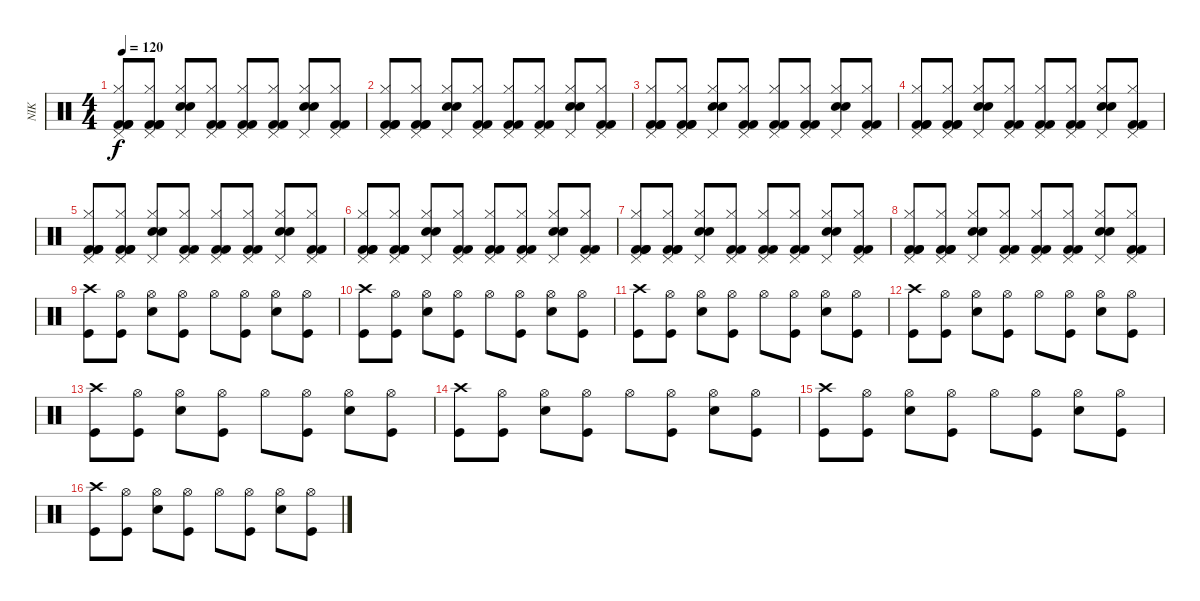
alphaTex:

\track ("NIK" "NIK") {instrument percussion}
\staff {score}
\articulation defaults
\ts (4 4)
\tempo 120
\clef neutral
\ks c
("Pedal Hi-Hat (hit)" "Hi-Hat (closed)" "Kick (hit) 2" "Kick (hit) 2" "Kick (hit) 2").8{dy f} ("Pedal Hi-Hat (hit)" "Hi-Hat (closed)" "Kick (hit) 2" "Kick (hit) 2" "Kick (hit) 2").8 ("Pedal Hi-Hat (hit)" "Hi-Hat (closed)" "Snare (hit) 2" "Snare (hit) 2").8 ("Pedal Hi-Hat (hit)" "Hi-Hat (closed)" "Kick (hit) 2" "Kick (hit) 2").8 ("Pedal Hi-Hat (hit)" "Hi-Hat (closed)" "Kick (hit) 2" "Kick (hit) 2").8 ("Pedal Hi-Hat (hit)" "Hi-Hat (closed)" "Kick (hit) 2" "Kick (hit) 2").8 ("Pedal Hi-Hat (hit)" "Hi-Hat (closed)" "Snare (hit) 2" "Snare (hit) 2").8 ("Pedal Hi-Hat (hit)" "Hi-Hat (closed)" "Kick (hit) 2" "Kick (hit) 2").8 |
("Pedal Hi-Hat (hit)" "Hi-Hat (closed)" "Kick (hit) 2" "Kick (hit) 2" "Kick (hit) 2").8 ("Pedal Hi-Hat (hit)" "Hi-Hat (closed)" "Kick (hit) 2" "Kick (hit) 2" "Kick (hit) 2").8 ("Pedal Hi-Hat (hit)" "Hi-Hat (closed)" "Snare (hit) 2" "Snare (hit) 2").8 ("Pedal Hi-Hat (hit)" "Hi-Hat (closed)" "Kick (hit) 2" "Kick (hit) 2").8 ("Pedal Hi-Hat (hit)" "Hi-Hat (closed)" "Kick (hit) 2" "Kick (hit) 2").8 ("Pedal Hi-Hat (hit)" "Hi-Hat (closed)" "Kick (hit) 2" "Kick (hit) 2").8 ("Pedal Hi-Hat (hit)" "Hi-Hat (closed)" "Snare (hit) 2" "Snare (hit) 2").8 ("Pedal Hi-Hat (hit)" "Hi-Hat (closed)" "Kick (hit) 2" "Kick (hit) 2").8 |
("Pedal Hi-Hat (hit)" "Hi-Hat (closed)" "Kick (hit) 2" "Kick (hit) 2" "Kick (hit) 2").8 ("Pedal Hi-Hat (hit)" "Hi-Hat (closed)" "Kick (hit) 2" "Kick (hit) 2" "Kick (hit) 2").8 ("Pedal Hi-Hat (hit)" "Hi-Hat (closed)" "Snare (hit) 2" "Snare (hit) 2").8 ("Pedal Hi-Hat (hit)" "Hi-Hat (closed)" "Kick (hit) 2" "Kick (hit) 2").8 ("Pedal Hi-Hat (hit)" "Hi-Hat (closed)" "Kick (hit) 2" "Kick (hit) 2").8 ("Pedal Hi-Hat (hit)" "Hi-Hat (closed)" "Kick (hit) 2" "Kick (hit) 2").8 ("Pedal Hi-Hat (hit)" "Hi-Hat (closed)" "Snare (hit) 2" "Snare (hit) 2").8 ("Pedal Hi-Hat (hit)" "Hi-Hat (closed)" "Kick (hit) 2" "Kick (hit) 2").8 |
("Pedal Hi-Hat (hit)" "Hi-Hat (closed)" "Kick (hit) 2" "Kick (hit) 2" "Kick (hit) 2").8 ("Pedal Hi-Hat (hit)" "Hi-Hat (closed)" "Kick (hit) 2" "Kick (hit) 2" "Kick (hit) 2").8 ("Pedal Hi-Hat (hit)" "Hi-Hat (closed)" "Snare (hit) 2" "Snare (hit) 2").8 ("Pedal Hi-Hat (hit)" "Hi-Hat (closed)" "Kick (hit) 2" "Kick (hit) 2").8 ("Pedal Hi-Hat (hit)" "Hi-Hat (closed)" "Kick (hit) 2" "Kick (hit) 2").8 ("Pedal Hi-Hat (hit)" "Hi-Hat (closed)" "Kick (hit) 2" "Kick (hit) 2").8 ("Pedal Hi-Hat (hit)" "Hi-Hat (closed)" "Snare (hit) 2" "Snare (hit) 2").8 ("Pedal Hi-Hat (hit)" "Hi-Hat (closed)" "Kick (hit) 2" "Kick (hit) 2").8 |
("Pedal Hi-Hat (hit)" "Hi-Hat (closed)" "Kick (hit) 2" "Kick (hit) 2" "Kick (hit) 2").8 ("Pedal Hi-Hat (hit)" "Hi-Hat (closed)" "Kick (hit) 2" "Kick (hit) 2" "Kick (hit) 2").8 ("Pedal Hi-Hat (hit)" "Hi-Hat (closed)" "Snare (hit) 2" "Snare (hit) 2").8 ("Pedal Hi-Hat (hit)" "Hi-Hat (closed)" "Kick (hit) 2" "Kick (hit) 2").8 ("Pedal Hi-Hat (hit)" "Hi-Hat (closed)" "Kick (hit) 2" "Kick (hit) 2").8 ("Pedal Hi-Hat (hit)" "Hi-Hat (closed)" "Kick (hit) 2" "Kick (hit) 2").8 ("Pedal Hi-Hat (hit)" "Hi-Hat (closed)" "Snare (hit) 2" "Snare (hit) 2").8 ("Pedal Hi-Hat (hit)" "Hi-Hat (closed)" "Kick (hit) 2" "Kick (hit) 2").8 |
("Pedal Hi-Hat (hit)" "Hi-Hat (closed)" "Kick (hit) 2" "Kick (hit) 2" "Kick (hit) 2").8 ("Pedal Hi-Hat (hit)" "Hi-Hat (closed)" "Kick (hit) 2" "Kick (hit) 2" "Kick (hit) 2").8 ("Pedal Hi-Hat (hit)" "Hi-Hat (closed)" "Snare (hit) 2" "Snare (hit) 2").8 ("Pedal Hi-Hat (hit)" "Hi-Hat (closed)" "Kick (hit) 2" "Kick (hit) 2").8 ("Pedal Hi-Hat (hit)" "Hi-Hat (closed)" "Kick (hit) 2" "Kick (hit) 2").8 ("Pedal Hi-Hat (hit)" "Hi-Hat (closed)" "Kick (hit) 2" "Kick (hit) 2").8 ("Pedal Hi-Hat (hit)" "Hi-Hat (closed)" "Snare (hit) 2" "Snare (hit) 2").8 ("Pedal Hi-Hat (hit)" "Hi-Hat (closed)" "Kick (hit) 2" "Kick (hit) 2").8 |
("Pedal Hi-Hat (hit)" "Hi-Hat (closed)" "Kick (hit) 2" "Kick (hit) 2" "Kick (hit) 2").8 ("Pedal Hi-Hat (hit)" "Hi-Hat (closed)" "Kick (hit) 2" "Kick (hit) 2" "Kick (hit) 2").8 ("Pedal Hi-Hat (hit)" "Hi-Hat (closed)" "Snare (hit) 2" "Snare (hit) 2").8 ("Pedal Hi-Hat (hit)" "Hi-Hat (closed)" "Kick (hit) 2" "Kick (hit) 2").8 ("Pedal Hi-Hat (hit)" "Hi-Hat (closed)" "Kick (hit) 2" "Kick (hit) 2").8 ("Pedal Hi-Hat (hit)" "Hi-Hat (closed)" "Kick (hit) 2" "Kick (hit) 2").8 ("Pedal Hi-Hat (hit)" "Hi-Hat (closed)" "Snare (hit) 2" "Snare (hit) 2").8 ("Pedal Hi-Hat (hit)" "Hi-Hat (closed)" "Kick (hit) 2" "Kick (hit) 2").8 |
("Pedal Hi-Hat (hit)" "Hi-Hat (closed)" "Kick (hit) 2" "Kick (hit) 2" "Kick (hit) 2").8 ("Pedal Hi-Hat (hit)" "Hi-Hat (closed)" "Kick (hit) 2" "Kick (hit) 2" "Kick (hit) 2").8 ("Pedal Hi-Hat (hit)" "Hi-Hat (closed)" "Snare (hit) 2" "Snare (hit) 2").8 ("Pedal Hi-Hat (hit)" "Hi-Hat (closed)" "Kick (hit) 2" "Kick (hit) 2").8 ("Pedal Hi-Hat (hit)" "Hi-Hat (closed)" "Kick (hit) 2" "Kick (hit) 2").8 ("Pedal Hi-Hat (hit)" "Hi-Hat (closed)" "Kick (hit) 2" "Kick (hit) 2").8 ("Pedal Hi-Hat (hit)" "Hi-Hat (closed)" "Snare (hit) 2" "Snare (hit) 2").8 ("Pedal Hi-Hat (hit)" "Hi-Hat (closed)" "Kick (hit) 2" "Kick (hit) 2").8 |
("Crash high (hit)" "Kick (hit)").8 ("Hi-Hat (open)" "Kick (hit)").8 ("Hi-Hat (open)" "Electric Snare (hit)").8 ("Hi-Hat (open)" "Kick (hit)").8 "Hi-Hat (open)".8 ("Hi-Hat (open)" "Kick (hit)").8 ("Hi-Hat (open)" "Electric Snare (hit)").8 ("Hi-Hat (open)" "Kick (hit)").8 |
("Crash high (hit)" "Kick (hit)").8 ("Hi-Hat (open)" "Kick (hit)").8 ("Hi-Hat (open)" "Electric Snare (hit)").8 ("Hi-Hat (open)" "Kick (hit)").8 "Hi-Hat (open)".8 ("Hi-Hat (open)" "Kick (hit)").8 ("Hi-Hat (open)" "Electric Snare (hit)").8 ("Hi-Hat (open)" "Kick (hit)").8 |
("Crash high (hit)" "Kick (hit)").8 ("Hi-Hat (open)" "Kick (hit)").8 ("Hi-Hat (open)" "Electric Snare (hit)").8 ("Hi-Hat (open)" "Kick (hit)").8 "Hi-Hat (open)".8 ("Hi-Hat (open)" "Kick (hit)").8 ("Hi-Hat (open)" "Electric Snare (hit)").8 ("Hi-Hat (open)" "Kick (hit)").8 |
("Crash high (hit)" "Kick (hit)").8 ("Hi-Hat (open)" "Kick (hit)").8 ("Hi-Hat (open)" "Electric Snare (hit)").8 ("Hi-Hat (open)" "Kick (hit)").8 "Hi-Hat (open)".8 ("Hi-Hat (open)" "Kick (hit)").8 ("Hi-Hat (open)" "Electric Snare (hit)").8 ("Hi-Hat (open)" "Kick (hit)").8 |
("Crash high (hit)" "Kick (hit)").8 ("Hi-Hat (open)" "Kick (hit)").8 ("Hi-Hat (open)" "Electric Snare (hit)").8 ("Hi-Hat (open)" "Kick (hit)").8 "Hi-Hat (open)".8 ("Hi-Hat (open)" "Kick (hit)").8 ("Hi-Hat (open)" "Electric Snare (hit)").8 ("Hi-Hat (open)" "Kick (hit)").8 |
("Crash high (hit)" "Kick (hit)").8 ("Hi-Hat (open)" "Kick (hit)").8 ("Hi-Hat (open)" "Electric Snare (hit)").8 ("Hi-Hat (open)" "Kick (hit)").8 "Hi-Hat (open)".8 ("Hi-Hat (open)" "Kick (hit)").8 ("Hi-Hat (open)" "Electric Snare (hit)").8 ("Hi-Hat (open)" "Kick (hit)").8 |
("Crash high (hit)" "Kick (hit)").8 ("Hi-Hat (open)" "Kick (hit)").8 ("Hi-Hat (open)" "Electric Snare (hit)").8 ("Hi-Hat (open)" "Kick (hit)").8 "Hi-Hat (open)".8 ("Hi-Hat (open)" "Kick (hit)").8 ("Hi-Hat (open)" "Electric Snare (hit)").8 ("Hi-Hat (open)" "Kick (hit)").8 |
("Crash high (hit)" "Kick (hit)").8 ("Hi-Hat (open)" "Kick (hit)").8 ("Hi-Hat (open)" "Electric Snare (hit)").8 ("Hi-Hat (open)" "Kick (hit)").8 "Hi-Hat (open)".8 ("Hi-Hat (open)" "Kick (hit)").8 ("Hi-Hat (open)" "Electric Snare (hit)").8 ("Hi-Hat (open)" "Kick (hit)").8
